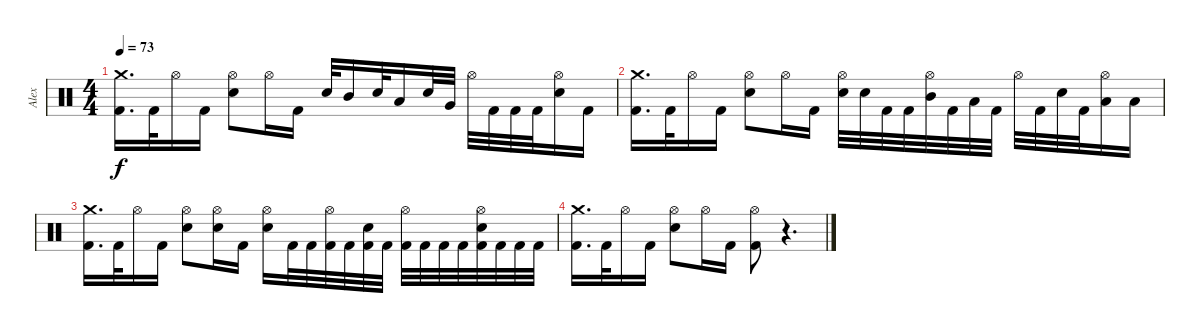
\track ("Alex" "Alex") {instrument percussion}
\staff
\articulation defaults
\ts (4 4)
\tempo 73
\clef neutral
\ks c
("Crash medium (hit)" "Kick (hit) 2").16{d dy f} "Kick (hit) 2".32 "Hi-Hat (open)".16 "Kick (hit) 2".16 ("Hi-Hat (open)" "Electric Snare (hit)").8 "Hi-Hat (open)".16 "Kick (hit) 2".16 "Electric Snare (hit)".32 "Mid Tom (hit)".16 "Electric Snare (hit)".32 "Low Tom (hit)".16 "Electric Snare (hit)".32 "Very Low Tom (hit)".32 "Hi-Hat (open)".32 "Kick (hit) 2".32 "Kick (hit) 2".32 "Kick (hit) 2".32 ("Hi-Hat (open)" "Electric Snare (hit)").16 "Kick (hit) 2".16 |
("Crash medium (hit)" "Kick (hit) 2").16{d} "Kick (hit) 2".32 "Hi-Hat (open)".16 "Kick (hit) 2".16 ("Hi-Hat (open)" "Electric Snare (hit)").8 "Hi-Hat (open)".16 "Kick (hit) 2".16 ("Hi-Hat (open)" "Electric Snare (hit)").32 "Electric Snare (hit)".32 "Kick (hit) 2".32 "Kick (hit) 2".32 ("Hi-Hat (open)" "Mid Tom (hit)").32 "Kick (hit) 2".32 "Low Tom (hit)".32 "Kick (hit) 2".32 "Hi-Hat (open)".32 "Kick (hit) 2".32 "Electric Snare (hit)".32 "Kick (hit) 2".32 ("Hi-Hat (open)" "Low Tom (hit)").16 "Low Floor Tom (hit)".16 |
("Crash medium (hit)" "Kick (hit) 2").16{d} "Kick (hit) 2".32 "Hi-Hat (open)".16 "Kick (hit) 2".16 ("Hi-Hat (open)" "Electric Snare (hit)").8 ("Hi-Hat (open)" "Electric Snare (hit)").16 "Kick (hit) 2".16 ("Hi-Hat (open)" "Electric Snare (hit)").16 "Kick (hit) 2".32 "Kick (hit) 2".32 ("Hi-Hat (open)" "Kick (hit) 2").32 "Kick (hit) 2".32 ("Electric Snare (hit)" "Kick (hit) 2").32 "Kick (hit) 2".32 ("Hi-Hat (open)" "Kick (hit) 2").32 "Kick (hit) 2".32 "Kick (hit) 2".32 "Kick (hit) 2".32 ("Hi-Hat (open)" "Electric Snare (hit)" "Kick (hit) 2").32 "Kick (hit) 2".32 "Kick (hit) 2".32 "Kick (hit) 2".32 |
("Crash medium (hit)" "Kick (hit) 2").16{d} "Kick (hit) 2".32 "Hi-Hat (open)".16 "Kick (hit) 2".16 ("Hi-Hat (open)" "Electric Snare (hit)").8 "Hi-Hat (open)".16 "Kick (hit) 2".16 ("Hi-Hat (open)" "Kick (hit) 2").8 r.4{d}
